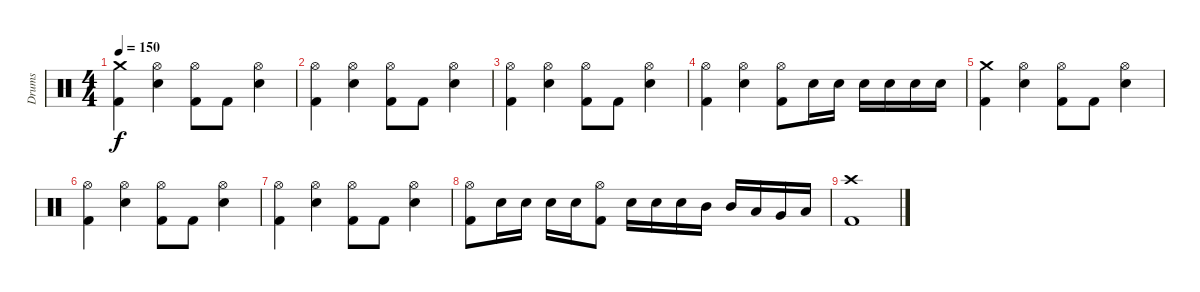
\track ("Drums" "Drums") {instrument percussion}
\staff {score}
\articulation defaults
\ts (4 4)
\tempo 150
\clef neutral
\ks c
("Crash medium (hit)" "Kick (hit) 2").4{dy f} ("Hi-Hat (open)" "Electric Snare (hit)").4 ("Hi-Hat (open)" "Kick (hit) 2").8 "Kick (hit) 2".8 ("Hi-Hat (open)" "Electric Snare (hit)").4 |
("Hi-Hat (open)" "Kick (hit) 2").4 ("Hi-Hat (open)" "Electric Snare (hit)").4 ("Hi-Hat (open)" "Kick (hit) 2").8 "Kick (hit) 2".8 ("Hi-Hat (open)" "Electric Snare (hit)").4 |
("Hi-Hat (open)" "Kick (hit) 2").4 ("Hi-Hat (open)" "Electric Snare (hit)").4 ("Hi-Hat (open)" "Kick (hit) 2").8 "Kick (hit) 2".8 ("Hi-Hat (open)" "Electric Snare (hit)").4 |
("Hi-Hat (open)" "Kick (hit) 2").4 ("Hi-Hat (open)" "Electric Snare (hit)").4 ("Hi-Hat (open)" "Kick (hit) 2").8 "Electric Snare (hit)".16 "Electric Snare (hit)".16 "Electric Snare (hit)".16 "Electric Snare (hit)".16 "Electric Snare (hit)".16 "Electric Snare (hit)".16 |
("Crash medium (hit)" "Kick (hit) 2").4 ("Hi-Hat (open)" "Electric Snare (hit)").4 ("Hi-Hat (open)" "Kick (hit) 2").8 "Kick (hit) 2".8 ("Hi-Hat (open)" "Electric Snare (hit)").4 |
("Hi-Hat (open)" "Kick (hit) 2").4 ("Hi-Hat (open)" "Electric Snare (hit)").4 ("Hi-Hat (open)" "Kick (hit) 2").8 "Kick (hit) 2".8 ("Hi-Hat (open)" "Electric Snare (hit)").4 |
("Hi-Hat (open)" "Kick (hit) 2").4 ("Hi-Hat (open)" "Electric Snare (hit)").4 ("Hi-Hat (open)" "Kick (hit) 2").8 "Kick (hit) 2".8 ("Hi-Hat (open)" "Electric Snare (hit)").4 |
("Hi-Hat (open)" "Kick (hit) 2").8 "Electric Snare (hit)".16 "Electric Snare (hit)".16 "Electric Snare (hit)".16 "Electric Snare (hit)".16 ("Hi-Hat (open)" "Kick (hit) 2").8 "Electric Snare (hit)".16 "Electric Snare (hit)".16 "Electric Snare (hit)".16 "Mid Tom (hit)".16 "Mid Tom (hit)".16 "Low Tom (hit)".16 "Very Low Tom (hit)".16 "Low Floor Tom (hit)".16 |
("Crash high (hit)" "Kick (hit) 2").1
